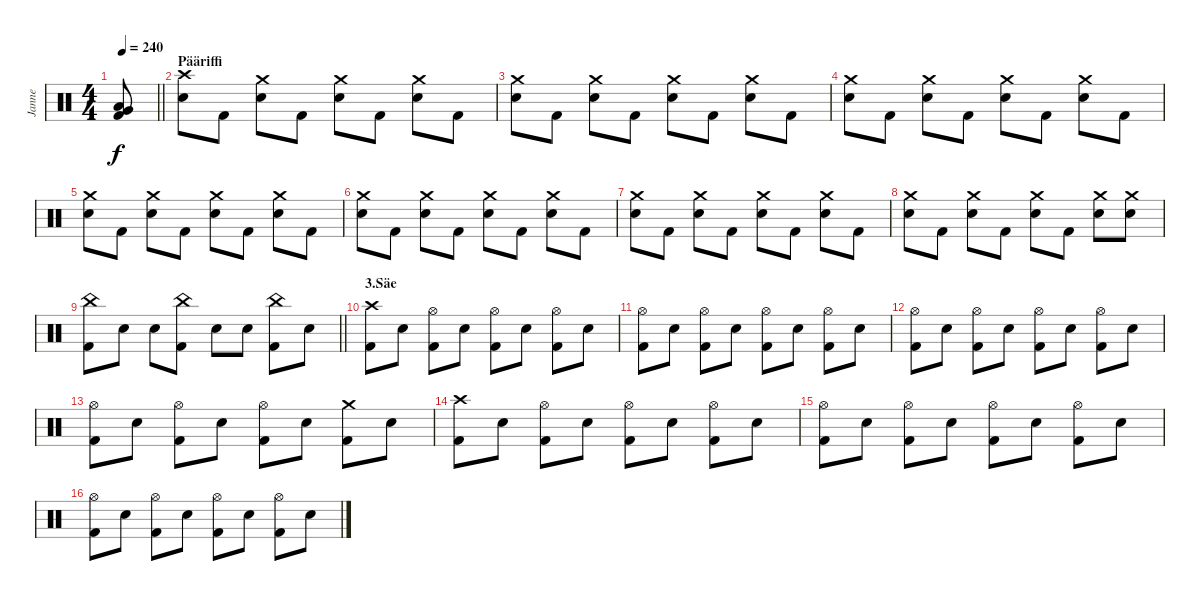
\track ("Janne" "Janne") {instrument percussion}
\staff {score}
\articulation defaults
\ts (4 4)
\tempo 240
\clef neutral
\barLineRight lightlight
\ks c
("Low Floor Tom (hit)" "Very Low Tom (hit)" "Kick (hit) 2").8{dy f} |
\section ("" "Pääriffi")
("Crash high (hit)" "Electric Snare (hit)").8 "Kick (hit) 2".8 ("Crash medium (hit)" "Electric Snare (hit)").8 "Kick (hit) 2".8 ("Crash medium (hit)" "Electric Snare (hit)").8 "Kick (hit) 2".8 ("Crash medium (hit)" "Electric Snare (hit)").8 "Kick (hit) 2".8 |
("Crash medium (hit)" "Electric Snare (hit)").8 "Kick (hit) 2".8 ("Crash medium (hit)" "Electric Snare (hit)").8 "Kick (hit) 2".8 ("Crash medium (hit)" "Electric Snare (hit)").8 "Kick (hit) 2".8 ("Crash medium (hit)" "Electric Snare (hit)").8 "Kick (hit) 2".8 |
("Crash medium (hit)" "Electric Snare (hit)").8 "Kick (hit) 2".8 ("Crash medium (hit)" "Electric Snare (hit)").8 "Kick (hit) 2".8 ("Crash medium (hit)" "Electric Snare (hit)").8 "Kick (hit) 2".8 ("Crash medium (hit)" "Electric Snare (hit)").8 "Kick (hit) 2".8 |
("Crash medium (hit)" "Electric Snare (hit)").8 "Kick (hit) 2".8 ("Crash medium (hit)" "Electric Snare (hit)").8 "Kick (hit) 2".8 ("Crash medium (hit)" "Electric Snare (hit)").8 "Kick (hit) 2".8 ("Crash medium (hit)" "Electric Snare (hit)").8 "Kick (hit) 2".8 |
("Crash medium (hit)" "Electric Snare (hit)").8 "Kick (hit) 2".8 ("Crash medium (hit)" "Electric Snare (hit)").8 "Kick (hit) 2".8 ("Crash medium (hit)" "Electric Snare (hit)").8 "Kick (hit) 2".8 ("Crash medium (hit)" "Electric Snare (hit)").8 "Kick (hit) 2".8 |
("Crash medium (hit)" "Electric Snare (hit)").8 "Kick (hit) 2".8 ("Crash medium (hit)" "Electric Snare (hit)").8 "Kick (hit) 2".8 ("Crash medium (hit)" "Electric Snare (hit)").8 "Kick (hit) 2".8 ("Crash medium (hit)" "Electric Snare (hit)").8 "Kick (hit) 2".8 |
("Crash medium (hit)" "Electric Snare (hit)").8 "Kick (hit) 2".8 ("Crash medium (hit)" "Electric Snare (hit)").8 "Kick (hit) 2".8 ("Crash medium (hit)" "Electric Snare (hit)").8 "Kick (hit) 2".8 ("Crash medium (hit)" "Electric Snare (hit)").8 ("Crash medium (hit)" "Electric Snare (hit)").8 |
\barLineRight lightlight
("China (hit)" "Kick (hit) 2").8 "Electric Snare (hit)".8 "Electric Snare (hit)".8 ("China (hit)" "Kick (hit) 2").8 "Electric Snare (hit)".8 "Electric Snare (hit)".8 ("China (hit)" "Kick (hit) 2").8 "Electric Snare (hit)".8 |
\section ("" "3.Säe")
("Crash high (hit)" "Kick (hit) 2").8 "Electric Snare (hit)".8 ("Hi-Hat (open)" "Kick (hit) 2").8 "Electric Snare (hit)".8 ("Hi-Hat (open)" "Kick (hit) 2").8 "Electric Snare (hit)".8 ("Hi-Hat (open)" "Kick (hit) 2").8 "Electric Snare (hit)".8 |
("Hi-Hat (open)" "Kick (hit) 2").8 "Electric Snare (hit)".8 ("Hi-Hat (open)" "Kick (hit) 2").8 "Electric Snare (hit)".8 ("Hi-Hat (open)" "Kick (hit) 2").8 "Electric Snare (hit)".8 ("Hi-Hat (open)" "Kick (hit) 2").8 "Electric Snare (hit)".8 |
("Hi-Hat (open)" "Kick (hit) 2").8 "Electric Snare (hit)".8 ("Hi-Hat (open)" "Kick (hit) 2").8 "Electric Snare (hit)".8 ("Hi-Hat (open)" "Kick (hit) 2").8 "Electric Snare (hit)".8 ("Hi-Hat (open)" "Kick (hit) 2").8 "Electric Snare (hit)".8 |
("Hi-Hat (open)" "Kick (hit) 2").8 "Electric Snare (hit)".8 ("Hi-Hat (open)" "Kick (hit) 2").8 "Electric Snare (hit)".8 ("Hi-Hat (open)" "Kick (hit) 2").8 "Electric Snare (hit)".8 ("Crash medium (hit)" "Kick (hit) 2").8 "Electric Snare (hit)".8 |
("Crash high (hit)" "Kick (hit) 2").8 "Electric Snare (hit)".8 ("Hi-Hat (open)" "Kick (hit) 2").8 "Electric Snare (hit)".8 ("Hi-Hat (open)" "Kick (hit) 2").8 "Electric Snare (hit)".8 ("Hi-Hat (open)" "Kick (hit) 2").8 "Electric Snare (hit)".8 |
("Hi-Hat (open)" "Kick (hit) 2").8 "Electric Snare (hit)".8 ("Hi-Hat (open)" "Kick (hit) 2").8 "Electric Snare (hit)".8 ("Hi-Hat (open)" "Kick (hit) 2").8 "Electric Snare (hit)".8 ("Hi-Hat (open)" "Kick (hit) 2").8 "Electric Snare (hit)".8 |
("Hi-Hat (open)" "Kick (hit) 2").8 "Electric Snare (hit)".8 ("Hi-Hat (open)" "Kick (hit) 2").8 "Electric Snare (hit)".8 ("Hi-Hat (open)" "Kick (hit) 2").8 "Electric Snare (hit)".8 ("Hi-Hat (open)" "Kick (hit) 2").8 "Electric Snare (hit)".8
